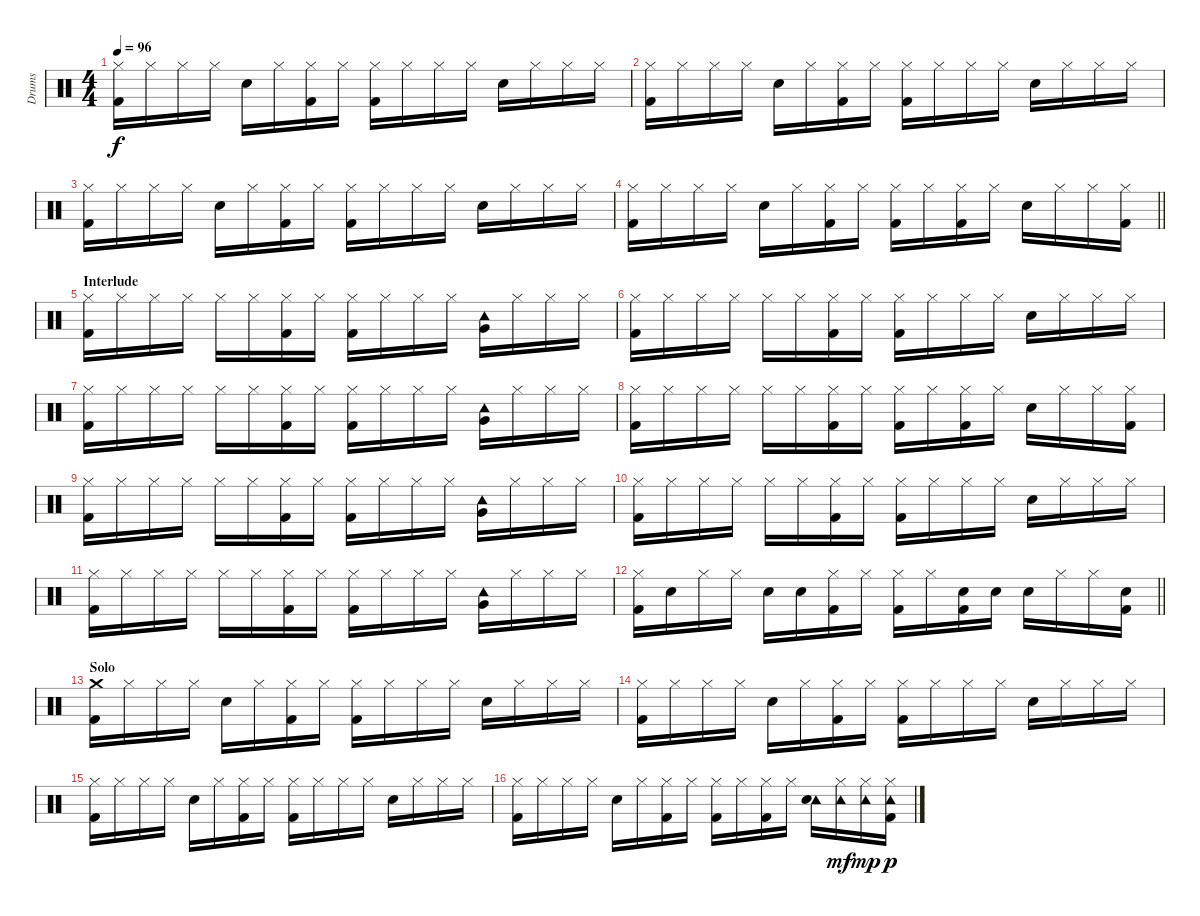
\track ("Drums" "Drums") {instrument percussion}
\staff {score}
\articulation defaults
\ts (4 4)
\tempo 96
\clef neutral
\ks c
("Hi-Hat (closed)" "Kick (hit) 2").16{dy f} "Hi-Hat (closed)".16 "Hi-Hat (closed)".16 "Hi-Hat (closed)".16 "Snare (hit) 2".16 "Hi-Hat (closed)".16 ("Hi-Hat (closed)" "Kick (hit) 2").16 "Hi-Hat (closed)".16 ("Hi-Hat (closed)" "Kick (hit) 2").16 "Hi-Hat (closed)".16 "Hi-Hat (closed)".16 "Hi-Hat (closed)".16 "Snare (hit) 2".16 "Hi-Hat (closed)".16 "Hi-Hat (closed)".16 "Hi-Hat (closed)".16 |
("Hi-Hat (closed)" "Kick (hit) 2").16 "Hi-Hat (closed)".16 "Hi-Hat (closed)".16 "Hi-Hat (closed)".16 "Snare (hit) 2".16 "Hi-Hat (closed)".16 ("Hi-Hat (closed)" "Kick (hit) 2").16 "Hi-Hat (closed)".16 ("Hi-Hat (closed)" "Kick (hit) 2").16 "Hi-Hat (closed)".16 "Hi-Hat (closed)".16 "Hi-Hat (closed)".16 "Snare (hit) 2".16 "Hi-Hat (closed)".16 "Hi-Hat (closed)".16 "Hi-Hat (closed)".16 |
("Hi-Hat (closed)" "Kick (hit) 2").16 "Hi-Hat (closed)".16 "Hi-Hat (closed)".16 "Hi-Hat (closed)".16 "Snare (hit) 2".16 "Hi-Hat (closed)".16 ("Hi-Hat (closed)" "Kick (hit) 2").16 "Hi-Hat (closed)".16 ("Hi-Hat (closed)" "Kick (hit) 2").16 "Hi-Hat (closed)".16 "Hi-Hat (closed)".16 "Hi-Hat (closed)".16 "Snare (hit) 2".16 "Hi-Hat (closed)".16 "Hi-Hat (closed)".16 "Hi-Hat (closed)".16 |
\barLineRight lightlight
("Hi-Hat (closed)" "Kick (hit) 2").16 "Hi-Hat (closed)".16 "Hi-Hat (closed)".16 "Hi-Hat (closed)".16 "Snare (hit) 2".16 "Hi-Hat (closed)".16 ("Hi-Hat (closed)" "Kick (hit) 2").16 "Hi-Hat (closed)".16 ("Hi-Hat (closed)" "Kick (hit) 2").16 "Hi-Hat (closed)".16 ("Hi-Hat (closed)" "Kick (hit) 2").16 "Hi-Hat (closed)".16 "Snare (hit) 2".16 "Hi-Hat (closed)".16 "Hi-Hat (closed)".16 ("Hi-Hat (closed)" "Kick (hit) 2").16 |
\section ("" "Interlude")
("Hi-Hat (closed)" "Kick (hit) 2").16 "Hi-Hat (closed)".16 "Hi-Hat (closed)".16 "Hi-Hat (closed)".16 "Hi-Hat (closed)".16 "Hi-Hat (closed)".16 ("Hi-Hat (closed)" "Kick (hit) 2").16 "Hi-Hat (closed)".16 ("Hi-Hat (closed)" "Kick (hit) 2").16 "Hi-Hat (closed)".16 "Hi-Hat (closed)".16 "Hi-Hat (closed)".16 ("Tambourine (hit)" "Very Low Tom (hit)").16 "Hi-Hat (closed)".16 "Hi-Hat (closed)".16 "Hi-Hat (closed)".16 |
("Hi-Hat (closed)" "Kick (hit) 2").16 "Hi-Hat (closed)".16 "Hi-Hat (closed)".16 "Hi-Hat (closed)".16 "Hi-Hat (closed)".16 "Hi-Hat (closed)".16 ("Hi-Hat (closed)" "Kick (hit) 2").16 "Hi-Hat (closed)".16 ("Hi-Hat (closed)" "Kick (hit) 2").16 "Hi-Hat (closed)".16 "Hi-Hat (closed)".16 "Hi-Hat (closed)".16 "Snare (hit) 2".16 "Hi-Hat (closed)".16 "Hi-Hat (closed)".16 "Hi-Hat (closed)".16 |
("Hi-Hat (closed)" "Kick (hit) 2").16 "Hi-Hat (closed)".16 "Hi-Hat (closed)".16 "Hi-Hat (closed)".16 "Hi-Hat (closed)".16 "Hi-Hat (closed)".16 ("Hi-Hat (closed)" "Kick (hit) 2").16 "Hi-Hat (closed)".16 ("Hi-Hat (closed)" "Kick (hit) 2").16 "Hi-Hat (closed)".16 "Hi-Hat (closed)".16 "Hi-Hat (closed)".16 ("Tambourine (hit)" "Very Low Tom (hit)").16 "Hi-Hat (closed)".16 "Hi-Hat (closed)".16 "Hi-Hat (closed)".16 |
("Hi-Hat (closed)" "Kick (hit) 2").16 "Hi-Hat (closed)".16 "Hi-Hat (closed)".16 "Hi-Hat (closed)".16 "Hi-Hat (closed)".16 "Hi-Hat (closed)".16 ("Hi-Hat (closed)" "Kick (hit) 2").16 "Hi-Hat (closed)".16 ("Hi-Hat (closed)" "Kick (hit) 2").16 "Hi-Hat (closed)".16 ("Hi-Hat (closed)" "Kick (hit) 2").16 "Hi-Hat (closed)".16 "Snare (hit) 2".16 "Hi-Hat (closed)".16 "Hi-Hat (closed)".16 ("Hi-Hat (closed)" "Kick (hit) 2").16 |
("Hi-Hat (closed)" "Kick (hit) 2").16 "Hi-Hat (closed)".16 "Hi-Hat (closed)".16 "Hi-Hat (closed)".16 "Hi-Hat (closed)".16 "Hi-Hat (closed)".16 ("Hi-Hat (closed)" "Kick (hit) 2").16 "Hi-Hat (closed)".16 ("Hi-Hat (closed)" "Kick (hit) 2").16 "Hi-Hat (closed)".16 "Hi-Hat (closed)".16 "Hi-Hat (closed)".16 ("Tambourine (hit)" "Very Low Tom (hit)").16 "Hi-Hat (closed)".16 "Hi-Hat (closed)".16 "Hi-Hat (closed)".16 |
("Hi-Hat (closed)" "Kick (hit) 2").16 "Hi-Hat (closed)".16 "Hi-Hat (closed)".16 "Hi-Hat (closed)".16 "Hi-Hat (closed)".16 "Hi-Hat (closed)".16 ("Hi-Hat (closed)" "Kick (hit) 2").16 "Hi-Hat (closed)".16 ("Hi-Hat (closed)" "Kick (hit) 2").16 "Hi-Hat (closed)".16 "Hi-Hat (closed)".16 "Hi-Hat (closed)".16 "Snare (hit) 2".16 "Hi-Hat (closed)".16 "Hi-Hat (closed)".16 "Hi-Hat (closed)".16 |
("Hi-Hat (closed)" "Kick (hit) 2").16 "Hi-Hat (closed)".16 "Hi-Hat (closed)".16 "Hi-Hat (closed)".16 "Hi-Hat (closed)".16 "Hi-Hat (closed)".16 ("Hi-Hat (closed)" "Kick (hit) 2").16 "Hi-Hat (closed)".16 ("Hi-Hat (closed)" "Kick (hit) 2").16 "Hi-Hat (closed)".16 "Hi-Hat (closed)".16 "Hi-Hat (closed)".16 ("Tambourine (hit)" "Very Low Tom (hit)").16 "Hi-Hat (closed)".16 "Hi-Hat (closed)".16 "Hi-Hat (closed)".16 |
\barLineRight lightlight
("Hi-Hat (closed)" "Kick (hit) 2").16 "Snare (hit) 2".16 "Hi-Hat (closed)".16 "Hi-Hat (closed)".16 "Snare (hit) 2".16 "Snare (hit) 2".16 ("Hi-Hat (closed)" "Kick (hit) 2").16 "Hi-Hat (closed)".16 ("Hi-Hat (closed)" "Kick (hit) 2").16 "Hi-Hat (closed)".16 ("Snare (hit) 2" "Kick (hit) 2").16 "Snare (hit) 2".16 "Snare (hit) 2".16 "Hi-Hat (closed)".16 "Hi-Hat (closed)".16 ("Snare (hit) 2" "Kick (hit) 2").16 |
\section ("" "Solo")
("Crash medium (hit)" "Kick (hit) 2").16 "Hi-Hat (closed)".16 "Hi-Hat (closed)".16 "Hi-Hat (closed)".16 "Snare (hit) 2".16 "Hi-Hat (closed)".16 ("Hi-Hat (closed)" "Kick (hit) 2").16 "Hi-Hat (closed)".16 ("Hi-Hat (closed)" "Kick (hit) 2").16 "Hi-Hat (closed)".16 "Hi-Hat (closed)".16 "Hi-Hat (closed)".16 "Snare (hit) 2".16 "Hi-Hat (closed)".16 "Hi-Hat (closed)".16 "Hi-Hat (closed)".16 |
("Hi-Hat (closed)" "Kick (hit) 2").16 "Hi-Hat (closed)".16 "Hi-Hat (closed)".16 "Hi-Hat (closed)".16 "Snare (hit) 2".16 "Hi-Hat (closed)".16 ("Hi-Hat (closed)" "Kick (hit) 2").16 "Hi-Hat (closed)".16 ("Hi-Hat (closed)" "Kick (hit) 2").16 "Hi-Hat (closed)".16 "Hi-Hat (closed)".16 "Hi-Hat (closed)".16 "Snare (hit) 2".16 "Hi-Hat (closed)".16 "Hi-Hat (closed)".16 "Hi-Hat (closed)".16 |
("Hi-Hat (closed)" "Kick (hit) 2").16 "Hi-Hat (closed)".16 "Hi-Hat (closed)".16 "Hi-Hat (closed)".16 "Snare (hit) 2".16 "Hi-Hat (closed)".16 ("Hi-Hat (closed)" "Kick (hit) 2").16 "Hi-Hat (closed)".16 ("Hi-Hat (closed)" "Kick (hit) 2").16 "Hi-Hat (closed)".16 "Hi-Hat (closed)".16 "Hi-Hat (closed)".16 "Snare (hit) 2".16 "Hi-Hat (closed)".16 "Hi-Hat (closed)".16 "Hi-Hat (closed)".16 |
("Hi-Hat (closed)" "Kick (hit) 2").16 "Hi-Hat (closed)".16 "Hi-Hat (closed)".16 "Hi-Hat (closed)".16 "Snare (hit) 2".16 "Hi-Hat (closed)".16 ("Hi-Hat (closed)" "Kick (hit) 2").16 "Hi-Hat (closed)".16 ("Hi-Hat (closed)" "Kick (hit) 2").16 "Hi-Hat (closed)".16 ("Hi-Hat (closed)" "Kick (hit) 2").16 "Hi-Hat (closed)".16 ("Tambourine (hit)" "Snare (hit) 2").16 ("Tambourine (hit)" "Hi-Hat (closed)").16{dy mf} ("Tambourine (hit)" "Hi-Hat (closed)").16{dy mp} ("Tambourine (hit)" "Hi-Hat (closed)" "Kick (hit) 2").16{dy p}
